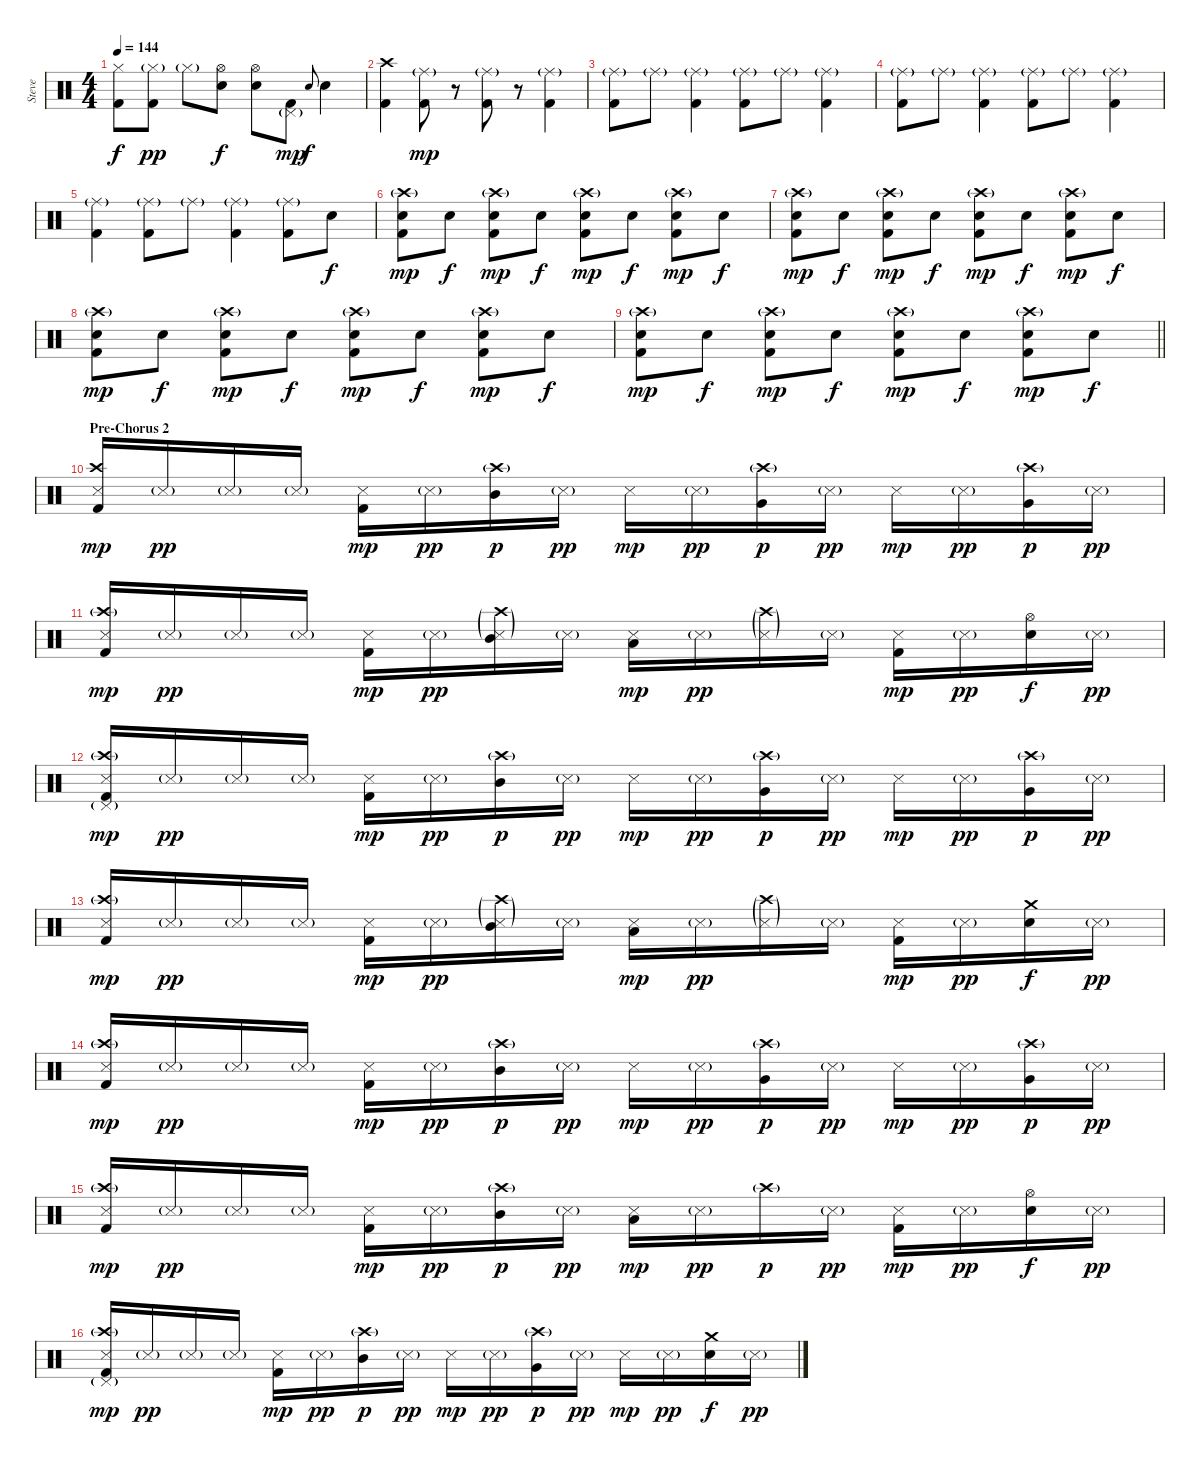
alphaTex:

\track ("Steve" "Steve") {instrument percussion}
\staff {score}
\articulation defaults
\ts (4 4)
\tempo 144
\clef neutral
\ks c
("Hi-Hat (closed)" "Kick (hit) 2").8{dy f} ("Hi-Hat (closed)"{g} "Kick (hit) 2").8{dy pp} "Hi-Hat (closed)"{g}.8 ("Hi-Hat (open)" "Electric Snare (hit)").8{dy f} ("Hi-Hat (open)" "Electric Snare (hit)").8 ("Pedal Hi-Hat (hit)"{g} "Kick (hit) 2").8{dy mp} "Electric Snare (hit)".8{gr onbeat dy f} "Electric Snare (hit)".4 |
("Crash high (hit)" "Kick (hit) 2").4 ("Ride (middle)"{g} "Kick (hit) 2").8{dy mp} r.8 ("Ride (middle)"{g} "Kick (hit) 2").8 r.8 ("Ride (middle)"{g} "Kick (hit) 2").4 |
("Ride (middle)"{g} "Kick (hit) 2").8 "Ride (middle)"{g}.8 ("Ride (middle)"{g} "Kick (hit) 2").4 ("Ride (middle)"{g} "Kick (hit) 2").8 "Ride (middle)"{g}.8 ("Ride (middle)"{g} "Kick (hit) 2").4 |
("Ride (middle)"{g} "Kick (hit) 2").8 "Ride (middle)"{g}.8 ("Ride (middle)"{g} "Kick (hit) 2").4 ("Ride (middle)"{g} "Kick (hit) 2").8 "Ride (middle)"{g}.8 ("Ride (middle)"{g} "Kick (hit) 2").4 |
("Ride (middle)"{g} "Kick (hit) 2").4 ("Ride (middle)"{g} "Kick (hit) 2").8 "Ride (middle)"{g}.8 ("Ride (middle)"{g} "Kick (hit) 2").4 ("Ride (middle)"{g} "Kick (hit) 2").8 "Electric Snare (hit)".8{dy f} |
("Crash high (hit)"{g} "Electric Snare (hit)" "Kick (hit) 2").8{dy mp} "Electric Snare (hit)".8{dy f} ("Crash high (hit)"{g} "Electric Snare (hit)" "Kick (hit) 2").8{dy mp} "Electric Snare (hit)".8{dy f} ("Crash high (hit)"{g} "Electric Snare (hit)" "Kick (hit) 2").8{dy mp} "Electric Snare (hit)".8{dy f} ("Crash high (hit)"{g} "Electric Snare (hit)" "Kick (hit) 2").8{dy mp} "Electric Snare (hit)".8{dy f} |
("Crash high (hit)"{g} "Electric Snare (hit)" "Kick (hit) 2").8{dy mp} "Electric Snare (hit)".8{dy f} ("Crash high (hit)"{g} "Electric Snare (hit)" "Kick (hit) 2").8{dy mp} "Electric Snare (hit)".8{dy f} ("Crash high (hit)"{g} "Electric Snare (hit)" "Kick (hit) 2").8{dy mp} "Electric Snare (hit)".8{dy f} ("Crash high (hit)"{g} "Electric Snare (hit)" "Kick (hit) 2").8{dy mp} "Electric Snare (hit)".8{dy f} |
("Crash high (hit)"{g} "Electric Snare (hit)" "Kick (hit) 2").8{dy mp} "Electric Snare (hit)".8{dy f} ("Crash high (hit)"{g} "Electric Snare (hit)" "Kick (hit) 2").8{dy mp} "Electric Snare (hit)".8{dy f} ("Crash high (hit)"{g} "Electric Snare (hit)" "Kick (hit) 2").8{dy mp} "Electric Snare (hit)".8{dy f} ("Crash high (hit)"{g} "Electric Snare (hit)" "Kick (hit) 2").8{dy mp} "Electric Snare (hit)".8{dy f} |
\barLineRight lightlight
("Crash high (hit)"{g} "Electric Snare (hit)" "Kick (hit) 2").8{dy mp} "Electric Snare (hit)".8{dy f} ("Crash high (hit)"{g} "Electric Snare (hit)" "Kick (hit) 2").8{dy mp} "Electric Snare (hit)".8{dy f} ("Crash high (hit)"{g} "Electric Snare (hit)" "Kick (hit) 2").8{dy mp} "Electric Snare (hit)".8{dy f} ("Crash high (hit)"{g} "Electric Snare (hit)" "Kick (hit) 2").8{dy mp} "Electric Snare (hit)".8{dy f} |
\section ("" "Pre-Chorus 2")
("Crash high (hit)" "Snare (side stick) 3" "Kick (hit) 2").16{dy mp} "Snare (side stick) 3"{g}.16{dy pp} "Snare (side stick) 3"{g}.16 "Snare (side stick) 3"{g}.16 ("Snare (side stick) 3" "Kick (hit) 2").16{dy mp} "Snare (side stick) 3"{g}.16{dy pp} ("Crash high (hit)"{g} "Mid Tom (hit)").16{dy p} "Snare (side stick) 3"{g}.16{dy pp} "Snare (side stick) 3".16{dy mp} "Snare (side stick) 3"{g}.16{dy pp} ("Crash high (hit)"{g} "Very Low Tom (hit)").16{dy p} "Snare (side stick) 3"{g}.16{dy pp} "Snare (side stick) 3".16{dy mp} "Snare (side stick) 3"{g}.16{dy pp} ("Crash high (hit)"{g} "Very Low Tom (hit)").16{dy p} "Snare (side stick) 3"{g}.16{dy pp} |
("Crash high (hit)"{g} "Snare (side stick) 3" "Kick (hit) 2").16{dy mp} "Snare (side stick) 3"{g}.16{dy pp} "Snare (side stick) 3"{g}.16 "Snare (side stick) 3"{g}.16 ("Snare (side stick) 3" "Kick (hit) 2").16{dy mp} "Snare (side stick) 3"{g}.16{dy pp} ("Crash high (hit)"{g} "Snare (side stick) 3"{g} "Mid Tom (hit)").16 "Snare (side stick) 3"{g}.16 ("Snare (side stick) 3" "Low Floor Tom (hit)").16{dy mp} "Snare (side stick) 3"{g}.16{dy pp} ("Crash high (hit)"{g} "Snare (side stick) 3"{g}).16 "Snare (side stick) 3"{g}.16 ("Snare (side stick) 3" "Kick (hit) 2").16{dy mp} "Snare (side stick) 3"{g}.16{dy pp} ("Hi-Hat (open)" "Electric Snare (hit)").16{dy f} "Snare (side stick) 3"{g}.16{dy pp} |
("Crash high (hit)"{g} "Snare (side stick) 3" "Pedal Hi-Hat (hit)"{g} "Kick (hit) 2").16{dy mp} "Snare (side stick) 3"{g}.16{dy pp} "Snare (side stick) 3"{g}.16 "Snare (side stick) 3"{g}.16 ("Snare (side stick) 3" "Kick (hit) 2").16{dy mp} "Snare (side stick) 3"{g}.16{dy pp} ("Crash high (hit)"{g} "Mid Tom (hit)").16{dy p} "Snare (side stick) 3"{g}.16{dy pp} "Snare (side stick) 3".16{dy mp} "Snare (side stick) 3"{g}.16{dy pp} ("Crash high (hit)"{g} "Very Low Tom (hit)").16{dy p} "Snare (side stick) 3"{g}.16{dy pp} "Snare (side stick) 3".16{dy mp} "Snare (side stick) 3"{g}.16{dy pp} ("Crash high (hit)"{g} "Very Low Tom (hit)").16{dy p} "Snare (side stick) 3"{g}.16{dy pp} |
("Crash high (hit)"{g} "Snare (side stick) 3" "Kick (hit) 2").16{dy mp} "Snare (side stick) 3"{g}.16{dy pp} "Snare (side stick) 3"{g}.16 "Snare (side stick) 3"{g}.16 ("Snare (side stick) 3" "Kick (hit) 2").16{dy mp} "Snare (side stick) 3"{g}.16{dy pp} ("Crash high (hit)"{g} "Snare (side stick) 3"{g} "Mid Tom (hit)").16 "Snare (side stick) 3"{g}.16 ("Snare (side stick) 3" "Low Floor Tom (hit)").16{dy mp} "Snare (side stick) 3"{g}.16{dy pp} ("Crash high (hit)"{g} "Snare (side stick) 3"{g}).16 "Snare (side stick) 3"{g}.16 ("Snare (side stick) 3" "Kick (hit) 2").16{dy mp} "Snare (side stick) 3"{g}.16{dy pp} ("Crash medium (hit)" "Electric Snare (hit)").16{dy f} "Snare (side stick) 3"{g}.16{dy pp} |
("Crash high (hit)"{g} "Snare (side stick) 3" "Kick (hit) 2").16{dy mp} "Snare (side stick) 3"{g}.16{dy pp} "Snare (side stick) 3"{g}.16 "Snare (side stick) 3"{g}.16 ("Snare (side stick) 3" "Kick (hit) 2").16{dy mp} "Snare (side stick) 3"{g}.16{dy pp} ("Crash high (hit)"{g} "Mid Tom (hit)").16{dy p} "Snare (side stick) 3"{g}.16{dy pp} "Snare (side stick) 3".16{dy mp} "Snare (side stick) 3"{g}.16{dy pp} ("Crash high (hit)"{g} "Very Low Tom (hit)").16{dy p} "Snare (side stick) 3"{g}.16{dy pp} "Snare (side stick) 3".16{dy mp} "Snare (side stick) 3"{g}.16{dy pp} ("Crash high (hit)"{g} "Very Low Tom (hit)").16{dy p} "Snare (side stick) 3"{g}.16{dy pp} |
("Crash high (hit)"{g} "Snare (side stick) 3" "Kick (hit) 2").16{dy mp} "Snare (side stick) 3"{g}.16{dy pp} "Snare (side stick) 3"{g}.16 "Snare (side stick) 3"{g}.16 ("Snare (side stick) 3" "Kick (hit) 2").16{dy mp} "Snare (side stick) 3"{g}.16{dy pp} ("Crash high (hit)"{g} "Mid Tom (hit)").16{dy p} "Snare (side stick) 3"{g}.16{dy pp} ("Snare (side stick) 3" "Low Floor Tom (hit)").16{dy mp} "Snare (side stick) 3"{g}.16{dy pp} "Crash high (hit)"{g}.16{dy p} "Snare (side stick) 3"{g}.16{dy pp} ("Snare (side stick) 3" "Kick (hit) 2").16{dy mp} "Snare (side stick) 3"{g}.16{dy pp} ("Hi-Hat (open)" "Electric Snare (hit)").16{dy f} "Snare (side stick) 3"{g}.16{dy pp} |
("Crash high (hit)"{g} "Snare (side stick) 3" "Pedal Hi-Hat (hit)"{g} "Kick (hit) 2").16{dy mp} "Snare (side stick) 3"{g}.16{dy pp} "Snare (side stick) 3"{g}.16 "Snare (side stick) 3"{g}.16 ("Snare (side stick) 3" "Kick (hit) 2").16{dy mp} "Snare (side stick) 3"{g}.16{dy pp} ("Crash high (hit)"{g} "Mid Tom (hit)").16{dy p} "Snare (side stick) 3"{g}.16{dy pp} "Snare (side stick) 3".16{dy mp} "Snare (side stick) 3"{g}.16{dy pp} ("Crash high (hit)"{g} "Very Low Tom (hit)").16{dy p} "Snare (side stick) 3"{g}.16{dy pp} "Snare (side stick) 3".16{dy mp} "Snare (side stick) 3"{g}.16{dy pp} ("Crash medium (hit)" "Electric Snare (hit)").16{dy f} "Snare (side stick) 3"{g}.16{dy pp}
